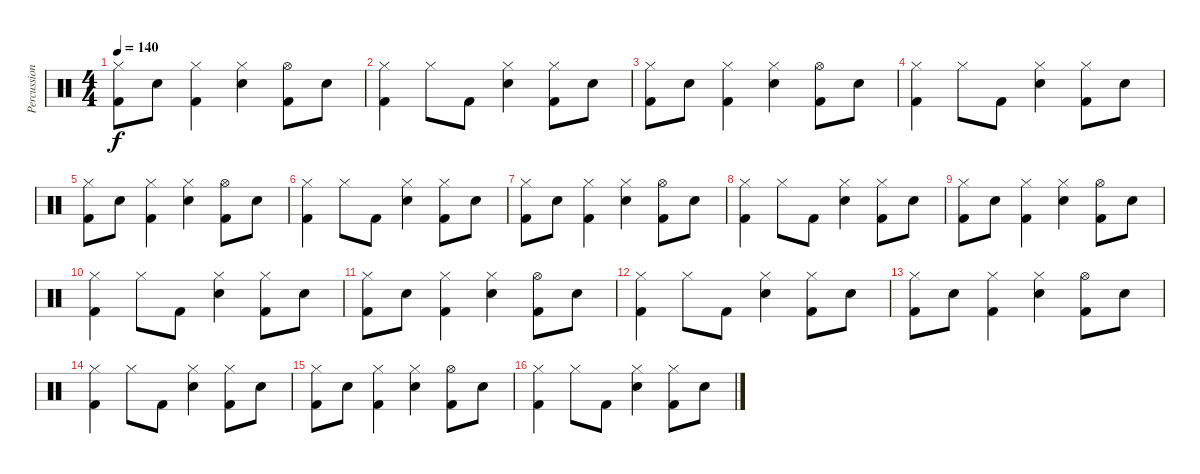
\track ("Percussion" "Percussion") {instrument percussion}
\staff {score}
\articulation defaults
\ts (4 4)
\tempo 140
\clef neutral
\ks c
("Hi-Hat (closed)" "Kick (hit) 2").8{dy f} "Electric Snare (hit)".8 ("Hi-Hat (closed)" "Kick (hit) 2").4 ("Hi-Hat (closed)" "Electric Snare (hit)").4 ("Hi-Hat (open)" "Kick (hit) 2").8 "Electric Snare (hit)".8 |
("Hi-Hat (closed)" "Kick (hit) 2").4 "Hi-Hat (closed)".8 "Kick (hit) 2".8 ("Hi-Hat (closed)" "Electric Snare (hit)").4 ("Hi-Hat (closed)" "Kick (hit) 2").8 "Electric Snare (hit)".8 |
("Hi-Hat (closed)" "Kick (hit) 2").8 "Electric Snare (hit)".8 ("Hi-Hat (closed)" "Kick (hit) 2").4 ("Hi-Hat (closed)" "Electric Snare (hit)").4 ("Hi-Hat (open)" "Kick (hit) 2").8 "Electric Snare (hit)".8 |
("Hi-Hat (closed)" "Kick (hit) 2").4 "Hi-Hat (closed)".8 "Kick (hit) 2".8 ("Hi-Hat (closed)" "Electric Snare (hit)").4 ("Hi-Hat (closed)" "Kick (hit) 2").8 "Electric Snare (hit)".8 |
("Hi-Hat (closed)" "Kick (hit) 2").8 "Electric Snare (hit)".8 ("Hi-Hat (closed)" "Kick (hit) 2").4 ("Hi-Hat (closed)" "Electric Snare (hit)").4 ("Hi-Hat (open)" "Kick (hit) 2").8 "Electric Snare (hit)".8 |
("Hi-Hat (closed)" "Kick (hit) 2").4 "Hi-Hat (closed)".8 "Kick (hit) 2".8 ("Hi-Hat (closed)" "Electric Snare (hit)").4 ("Hi-Hat (closed)" "Kick (hit) 2").8 "Electric Snare (hit)".8 |
("Hi-Hat (closed)" "Kick (hit) 2").8 "Electric Snare (hit)".8 ("Hi-Hat (closed)" "Kick (hit) 2").4 ("Hi-Hat (closed)" "Electric Snare (hit)").4 ("Hi-Hat (open)" "Kick (hit) 2").8 "Electric Snare (hit)".8 |
("Hi-Hat (closed)" "Kick (hit) 2").4 "Hi-Hat (closed)".8 "Kick (hit) 2".8 ("Hi-Hat (closed)" "Electric Snare (hit)").4 ("Hi-Hat (closed)" "Kick (hit) 2").8 "Electric Snare (hit)".8 |
("Hi-Hat (closed)" "Kick (hit) 2").8 "Electric Snare (hit)".8 ("Hi-Hat (closed)" "Kick (hit) 2").4 ("Hi-Hat (closed)" "Electric Snare (hit)").4 ("Hi-Hat (open)" "Kick (hit) 2").8 "Electric Snare (hit)".8 |
("Hi-Hat (closed)" "Kick (hit) 2").4 "Hi-Hat (closed)".8 "Kick (hit) 2".8 ("Hi-Hat (closed)" "Electric Snare (hit)").4 ("Hi-Hat (closed)" "Kick (hit) 2").8 "Electric Snare (hit)".8 |
("Hi-Hat (closed)" "Kick (hit) 2").8 "Electric Snare (hit)".8 ("Hi-Hat (closed)" "Kick (hit) 2").4 ("Hi-Hat (closed)" "Electric Snare (hit)").4 ("Hi-Hat (open)" "Kick (hit) 2").8 "Electric Snare (hit)".8 |
("Hi-Hat (closed)" "Kick (hit) 2").4 "Hi-Hat (closed)".8 "Kick (hit) 2".8 ("Hi-Hat (closed)" "Electric Snare (hit)").4 ("Hi-Hat (closed)" "Kick (hit) 2").8 "Electric Snare (hit)".8 |
("Hi-Hat (closed)" "Kick (hit) 2").8 "Electric Snare (hit)".8 ("Hi-Hat (closed)" "Kick (hit) 2").4 ("Hi-Hat (closed)" "Electric Snare (hit)").4 ("Hi-Hat (open)" "Kick (hit) 2").8 "Electric Snare (hit)".8 |
("Hi-Hat (closed)" "Kick (hit) 2").4 "Hi-Hat (closed)".8 "Kick (hit) 2".8 ("Hi-Hat (closed)" "Electric Snare (hit)").4 ("Hi-Hat (closed)" "Kick (hit) 2").8 "Electric Snare (hit)".8 |
("Hi-Hat (closed)" "Kick (hit) 2").8 "Electric Snare (hit)".8 ("Hi-Hat (closed)" "Kick (hit) 2").4 ("Hi-Hat (closed)" "Electric Snare (hit)").4 ("Hi-Hat (open)" "Kick (hit) 2").8 "Electric Snare (hit)".8 |
("Hi-Hat (closed)" "Kick (hit) 2").4 "Hi-Hat (closed)".8 "Kick (hit) 2".8 ("Hi-Hat (closed)" "Electric Snare (hit)").4 ("Hi-Hat (closed)" "Kick (hit) 2").8 "Electric Snare (hit)".8
